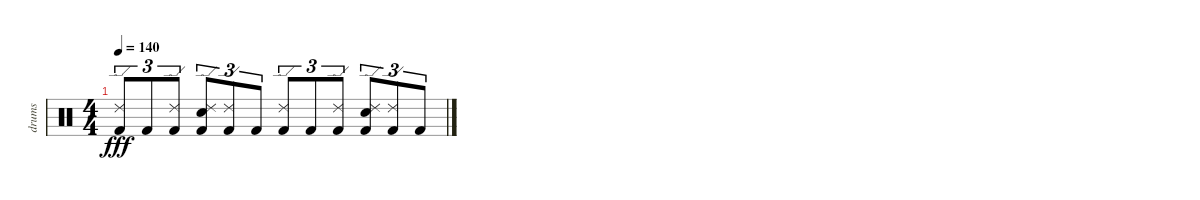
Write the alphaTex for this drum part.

\track ("drums" "drums") {instrument percussion}
\staff {score}
\articulation defaults
\ts (4 4)
\tempo 140
\clef neutral
\ks c
("Ride (edge) 2" "Kick (hit) 2").8{tu (3 2) dy fff} "Kick (hit) 2".8{tu (3 2)} ("Ride (edge) 2" "Kick (hit) 2").8{tu (3 2)} ("Ride (edge) 2" "Snare (hit) 2" "Kick (hit) 2").8{tu (3 2)} ("Ride (edge) 2" "Kick (hit) 2").8{tu (3 2)} "Kick (hit) 2".8{tu (3 2)} ("Ride (edge) 2" "Kick (hit) 2").8{tu (3 2)} "Kick (hit) 2".8{tu (3 2)} ("Ride (edge) 2" "Kick (hit) 2").8{tu (3 2)} ("Ride (edge) 2" "Snare (hit) 2" "Kick (hit) 2").8{tu (3 2)} ("Ride (edge) 2" "Kick (hit) 2").8{tu (3 2)} "Kick (hit) 2".8{tu (3 2)}
